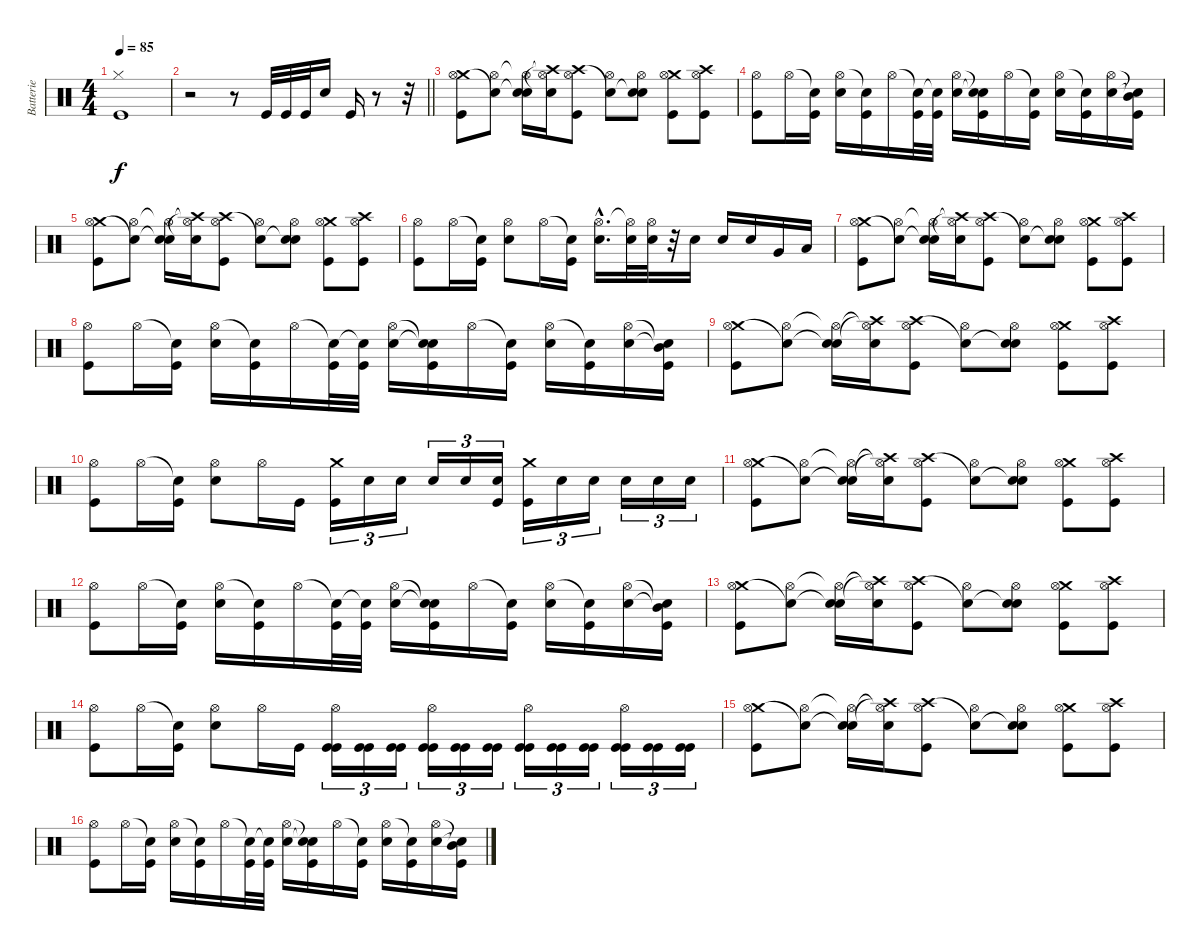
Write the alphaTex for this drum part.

\track ("Batterie" "Batterie") {instrument percussion}
\staff {score}
\articulation defaults
\ts (4 4)
\tempo 85
\clef neutral
\ks c
("Hi-Hat (closed)" "Kick (hit)").1{dy f} |
\barLineRight lightlight
r.2 r.8 "Kick (hit)".32 "Kick (hit)".32 "Kick (hit)".32 "Snare (hit) 2".16 "Kick (hit)".16 r.8 r.32 |
("Crash medium (hit)" "Hi-Hat (open)" "Kick (hit)").8 ("Snare (hit)"{t} "Hi-Hat (open)").8 ("Snare (hit)"{t} "Hi-Hat (open)"{t} "Snare (hit) 2").16 ("Crash high (hit)"{t} "Hi-Hat (open)"{t} "Snare (hit) 2").16 ("Crash high (hit)" "Hi-Hat (open)" "Kick (hit)").8 ("Snare (hit)"{t} "Hi-Hat (open)").8 ("Snare (hit)"{t} "Hi-Hat (open)" "Snare (hit) 2").8 ("Crash medium (hit)" "Hi-Hat (open)" "Kick (hit)").8 ("Crash high (hit)" "Hi-Hat (open)" "Kick (hit)").8 |
("Hi-Hat (open)" "Kick (hit)").8 "Hi-Hat (open)".16 ("Snare (hit)"{t} "Kick (hit)").16 ("Hi-Hat (open)" "Snare (hit) 2").16 ("Snare (hit)"{t} "Kick (hit)").16 "Hi-Hat (open)".16 ("Snare (hit)"{t} "Kick (hit)").32 ("Snare (hit)"{t} "Kick (hit)").32 ("Hi-Hat (open)" "Snare (hit) 2").16 ("Snare (hit)"{t} "Snare (hit)"{t} "Kick (hit)").16 "Hi-Hat (open)".16 ("Snare (hit)"{t} "Kick (hit)").16 ("Hi-Hat (open)" "Snare (hit) 2").16 ("Snare (hit)"{t} "Kick (hit)").16 ("Hi-Hat (open)" "Snare (hit) 2").16 ("Snare (hit)"{t} "Mid Tom (hit)"{t} "Kick (hit)").16 |
("Crash medium (hit)" "Hi-Hat (open)" "Kick (hit)").8 ("Snare (hit)"{t} "Hi-Hat (open)").8 ("Snare (hit)"{t} "Hi-Hat (open)"{t} "Snare (hit) 2").16 ("Crash high (hit)"{t} "Hi-Hat (open)"{t} "Snare (hit) 2").16 ("Crash high (hit)" "Hi-Hat (open)" "Kick (hit)").8 ("Snare (hit)"{t} "Hi-Hat (open)").8 ("Snare (hit)"{t} "Hi-Hat (open)" "Snare (hit) 2").8 ("Crash medium (hit)" "Hi-Hat (open)" "Kick (hit)").8 ("Crash high (hit)" "Hi-Hat (open)" "Kick (hit)").8 |
("Hi-Hat (open)" "Kick (hit)").8 "Hi-Hat (open)".16 ("Snare (hit)"{t} "Kick (hit)").16 ("Hi-Hat (open)" "Snare (hit) 2").8 "Hi-Hat (open)".16 ("Snare (hit)"{t} "Kick (hit)").16 ("Hi-Hat (open)"{hac} "Snare (hit) 2"{hac}).16{d} ("Hi-Hat (open)"{t} "Snare (hit) 2").32 ("Hi-Hat (open)" "Snare (hit) 2").32 r.32 "Snare (hit) 2".16 "Snare (hit) 2".16 "Snare (hit) 2".16 "Very Low Tom (hit)".16 "Low Floor Tom (hit)".16 |
("Crash medium (hit)" "Hi-Hat (open)" "Kick (hit)").8 ("Snare (hit)"{t} "Hi-Hat (open)").8 ("Snare (hit)"{t} "Hi-Hat (open)"{t} "Snare (hit) 2").16 ("Crash high (hit)"{t} "Hi-Hat (open)"{t} "Snare (hit) 2").16 ("Crash high (hit)" "Hi-Hat (open)" "Kick (hit)").8 ("Snare (hit)"{t} "Hi-Hat (open)").8 ("Snare (hit)"{t} "Hi-Hat (open)" "Snare (hit) 2").8 ("Crash medium (hit)" "Hi-Hat (open)" "Kick (hit)").8 ("Crash high (hit)" "Hi-Hat (open)" "Kick (hit)").8 |
("Hi-Hat (open)" "Kick (hit)").8 "Hi-Hat (open)".16 ("Snare (hit)"{t} "Kick (hit)").16 ("Hi-Hat (open)" "Snare (hit) 2").16 ("Snare (hit)"{t} "Kick (hit)").16 "Hi-Hat (open)".16 ("Snare (hit)"{t} "Kick (hit)").32 ("Snare (hit)"{t} "Kick (hit)").32 ("Hi-Hat (open)" "Snare (hit) 2").16 ("Snare (hit)"{t} "Snare (hit)"{t} "Kick (hit)").16 "Hi-Hat (open)".16 ("Snare (hit)"{t} "Kick (hit)").16 ("Hi-Hat (open)" "Snare (hit) 2").16 ("Snare (hit)"{t} "Kick (hit)").16 ("Hi-Hat (open)" "Snare (hit) 2").16 ("Snare (hit)"{t} "Mid Tom (hit)"{t} "Kick (hit)").16 |
("Crash medium (hit)" "Hi-Hat (open)" "Kick (hit)").8 ("Snare (hit)"{t} "Hi-Hat (open)").8 ("Snare (hit)"{t} "Hi-Hat (open)"{t} "Snare (hit) 2").16 ("Crash high (hit)"{t} "Hi-Hat (open)"{t} "Snare (hit) 2").16 ("Crash high (hit)" "Hi-Hat (open)" "Kick (hit)").8 ("Snare (hit)"{t} "Hi-Hat (open)").8 ("Snare (hit)"{t} "Hi-Hat (open)" "Snare (hit) 2").8 ("Crash medium (hit)" "Hi-Hat (open)" "Kick (hit)").8 ("Crash high (hit)" "Hi-Hat (open)" "Kick (hit)").8 |
("Hi-Hat (open)" "Kick (hit)").8 "Hi-Hat (open)".16 ("Snare (hit)"{t} "Kick (hit)").16 ("Hi-Hat (open)" "Snare (hit) 2").8 "Hi-Hat (open)".16 "Kick (hit)".16 ("Crash medium (hit)" "Kick (hit)").16{tu (3 2)} "Snare (hit) 2".16{tu (3 2)} "Snare (hit) 2".16{tu (3 2)} "Snare (hit) 2".16{tu (3 2)} "Snare (hit) 2".16{tu (3 2)} ("Snare (hit) 2" "Kick (hit)").16{tu (3 2)} ("Crash medium (hit)" "Kick (hit)").16{tu (3 2)} "Snare (hit) 2".16{tu (3 2)} "Snare (hit) 2".16{tu (3 2)} "Snare (hit) 2".16{tu (3 2)} "Snare (hit) 2".16{tu (3 2)} "Snare (hit) 2".16{tu (3 2)} |
("Crash medium (hit)" "Hi-Hat (open)" "Kick (hit)").8 ("Snare (hit)"{t} "Hi-Hat (open)").8 ("Snare (hit)"{t} "Hi-Hat (open)"{t} "Snare (hit) 2").16 ("Crash high (hit)"{t} "Hi-Hat (open)"{t} "Snare (hit) 2").16 ("Crash high (hit)" "Hi-Hat (open)" "Kick (hit)").8 ("Snare (hit)"{t} "Hi-Hat (open)").8 ("Snare (hit)"{t} "Hi-Hat (open)" "Snare (hit) 2").8 ("Crash medium (hit)" "Hi-Hat (open)" "Kick (hit)").8 ("Crash high (hit)" "Hi-Hat (open)" "Kick (hit)").8 |
("Hi-Hat (open)" "Kick (hit)").8 "Hi-Hat (open)".16 ("Snare (hit)"{t} "Kick (hit)").16 ("Hi-Hat (open)" "Snare (hit) 2").16 ("Snare (hit)"{t} "Kick (hit)").16 "Hi-Hat (open)".16 ("Snare (hit)"{t} "Kick (hit)").32 ("Snare (hit)"{t} "Kick (hit)").32 ("Hi-Hat (open)" "Snare (hit) 2").16 ("Snare (hit)"{t} "Snare (hit)"{t} "Kick (hit)").16 "Hi-Hat (open)".16 ("Snare (hit)"{t} "Kick (hit)").16 ("Hi-Hat (open)" "Snare (hit) 2").16 ("Snare (hit)"{t} "Kick (hit)").16 ("Hi-Hat (open)" "Snare (hit) 2").16 ("Snare (hit)"{t} "Mid Tom (hit)"{t} "Kick (hit)").16 |
("Crash medium (hit)" "Hi-Hat (open)" "Kick (hit)").8 ("Snare (hit)"{t} "Hi-Hat (open)").8 ("Snare (hit)"{t} "Hi-Hat (open)"{t} "Snare (hit) 2").16 ("Crash high (hit)"{t} "Hi-Hat (open)"{t} "Snare (hit) 2").16 ("Crash high (hit)" "Hi-Hat (open)" "Kick (hit)").8 ("Snare (hit)"{t} "Hi-Hat (open)").8 ("Snare (hit)"{t} "Hi-Hat (open)" "Snare (hit) 2").8 ("Crash medium (hit)" "Hi-Hat (open)" "Kick (hit)").8 ("Crash high (hit)" "Hi-Hat (open)" "Kick (hit)").8 |
("Hi-Hat (open)" "Kick (hit)").8 "Hi-Hat (open)".16 ("Snare (hit)"{t} "Kick (hit)").16 ("Hi-Hat (open)" "Snare (hit) 2").8 "Hi-Hat (open)".16 "Kick (hit)".16 ("Hi-Hat (open)" "Kick (hit)" "Kick (hit)").16{tu (3 2)} ("Kick (hit)" "Kick (hit)").16{tu (3 2)} ("Kick (hit)" "Kick (hit)").16{tu (3 2)} ("Hi-Hat (open)" "Kick (hit)" "Kick (hit)").16{tu (3 2)} ("Kick (hit)" "Kick (hit)").16{tu (3 2)} ("Kick (hit)" "Kick (hit)").16{tu (3 2)} ("Hi-Hat (open)" "Kick (hit)" "Kick (hit)").16{tu (3 2)} ("Kick (hit)" "Kick (hit)").16{tu (3 2)} ("Kick (hit)" "Kick (hit)").16{tu (3 2)} ("Hi-Hat (open)" "Kick (hit)" "Kick (hit)").16{tu (3 2)} ("Kick (hit)" "Kick (hit)").16{tu (3 2)} ("Kick (hit)" "Kick (hit)").16{tu (3 2)} |
("Crash medium (hit)" "Hi-Hat (open)" "Kick (hit)").8 ("Snare (hit)"{t} "Hi-Hat (open)").8 ("Snare (hit)"{t} "Hi-Hat (open)"{t} "Snare (hit) 2").16 ("Crash high (hit)"{t} "Hi-Hat (open)"{t} "Snare (hit) 2").16 ("Crash high (hit)" "Hi-Hat (open)" "Kick (hit)").8 ("Snare (hit)"{t} "Hi-Hat (open)").8 ("Snare (hit)"{t} "Hi-Hat (open)" "Snare (hit) 2").8 ("Crash medium (hit)" "Hi-Hat (open)" "Kick (hit)").8 ("Crash high (hit)" "Hi-Hat (open)" "Kick (hit)").8 |
("Hi-Hat (open)" "Kick (hit)").8 "Hi-Hat (open)".16 ("Snare (hit)"{t} "Kick (hit)").16 ("Hi-Hat (open)" "Snare (hit) 2").16 ("Snare (hit)"{t} "Kick (hit)").16 "Hi-Hat (open)".16 ("Snare (hit)"{t} "Kick (hit)").32 ("Snare (hit)"{t} "Kick (hit)").32 ("Hi-Hat (open)" "Snare (hit) 2").16 ("Snare (hit)"{t} "Snare (hit)"{t} "Kick (hit)").16 "Hi-Hat (open)".16 ("Snare (hit)"{t} "Kick (hit)").16 ("Hi-Hat (open)" "Snare (hit) 2").16 ("Snare (hit)"{t} "Kick (hit)").16 ("Hi-Hat (open)" "Snare (hit) 2").16 ("Snare (hit)"{t} "Mid Tom (hit)"{t} "Kick (hit)").16
